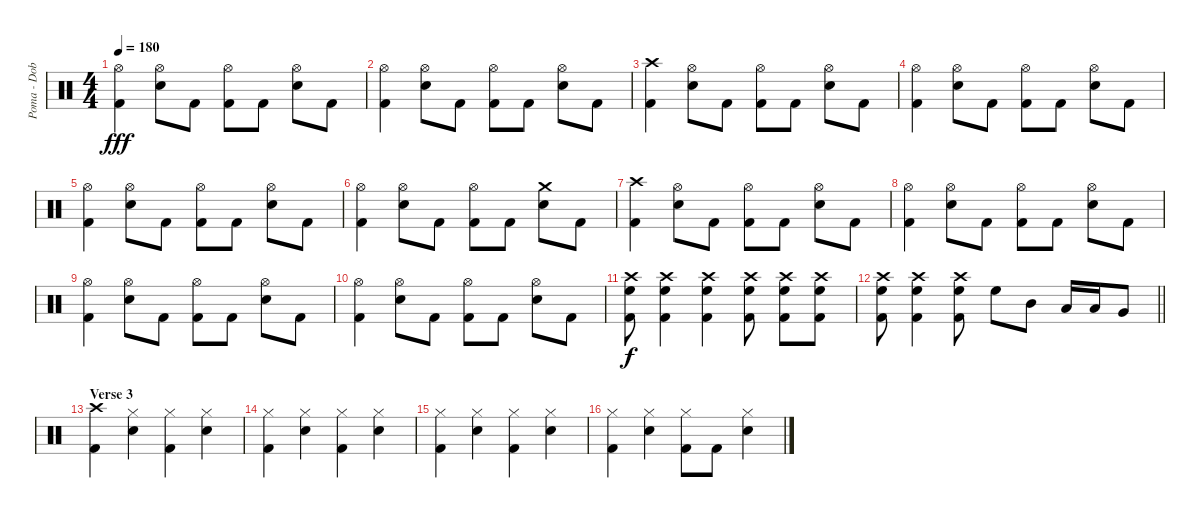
\track ("Poma - Dob" "Poma - Dob") {instrument percussion}
\staff {score}
\articulation defaults
\ts (4 4)
\tempo 180
\clef neutral
\ks c
("Hi-Hat (open)" "Kick (hit) 2").4{dy fff} ("Hi-Hat (open)" "Electric Snare (hit)").8 "Kick (hit) 2".8 ("Hi-Hat (open)" "Kick (hit) 2").8 "Kick (hit) 2".8 ("Hi-Hat (open)" "Electric Snare (hit)").8 "Kick (hit) 2".8 |
("Hi-Hat (open)" "Kick (hit) 2").4 ("Hi-Hat (open)" "Electric Snare (hit)").8 "Kick (hit) 2".8 ("Hi-Hat (open)" "Kick (hit) 2").8 "Kick (hit) 2".8 ("Hi-Hat (open)" "Electric Snare (hit)").8 "Kick (hit) 2".8 |
("Crash high (hit)" "Kick (hit) 2").4 ("Hi-Hat (open)" "Electric Snare (hit)").8 "Kick (hit) 2".8 ("Hi-Hat (open)" "Kick (hit) 2").8 "Kick (hit) 2".8 ("Hi-Hat (open)" "Electric Snare (hit)").8 "Kick (hit) 2".8 |
("Hi-Hat (open)" "Kick (hit) 2").4 ("Hi-Hat (open)" "Electric Snare (hit)").8 "Kick (hit) 2".8 ("Hi-Hat (open)" "Kick (hit) 2").8 "Kick (hit) 2".8 ("Hi-Hat (open)" "Electric Snare (hit)").8 "Kick (hit) 2".8 |
("Hi-Hat (open)" "Kick (hit) 2").4 ("Hi-Hat (open)" "Electric Snare (hit)").8 "Kick (hit) 2".8 ("Hi-Hat (open)" "Kick (hit) 2").8 "Kick (hit) 2".8 ("Hi-Hat (open)" "Electric Snare (hit)").8 "Kick (hit) 2".8 |
("Hi-Hat (open)" "Kick (hit) 2").4 ("Hi-Hat (open)" "Electric Snare (hit)").8 "Kick (hit) 2".8 ("Hi-Hat (open)" "Kick (hit) 2").8 "Kick (hit) 2".8 ("Crash medium (hit)" "Electric Snare (hit)").8 "Kick (hit) 2".8 |
("Crash high (hit)" "Kick (hit) 2").4 ("Hi-Hat (open)" "Electric Snare (hit)").8 "Kick (hit) 2".8 ("Hi-Hat (open)" "Kick (hit) 2").8 "Kick (hit) 2".8 ("Hi-Hat (open)" "Electric Snare (hit)").8 "Kick (hit) 2".8 |
("Hi-Hat (open)" "Kick (hit) 2").4 ("Hi-Hat (open)" "Electric Snare (hit)").8 "Kick (hit) 2".8 ("Hi-Hat (open)" "Kick (hit) 2").8 "Kick (hit) 2".8 ("Hi-Hat (open)" "Electric Snare (hit)").8 "Kick (hit) 2".8 |
("Hi-Hat (open)" "Kick (hit) 2").4 ("Hi-Hat (open)" "Electric Snare (hit)").8 "Kick (hit) 2".8 ("Hi-Hat (open)" "Kick (hit) 2").8 "Kick (hit) 2".8 ("Hi-Hat (open)" "Electric Snare (hit)").8 "Kick (hit) 2".8 |
("Hi-Hat (open)" "Kick (hit) 2").4 ("Hi-Hat (open)" "Electric Snare (hit)").8 "Kick (hit) 2".8 ("Hi-Hat (open)" "Kick (hit) 2").8 "Kick (hit) 2".8 ("Hi-Hat (open)" "Electric Snare (hit)").8 "Kick (hit) 2".8 |
("Crash high (hit)" "High Floor Tom (hit)" "Kick (hit) 2").8{dy f} ("Crash high (hit)" "High Floor Tom (hit)" "Kick (hit) 2").4 ("Crash high (hit)" "High Floor Tom (hit)" "Kick (hit) 2").4 ("Crash high (hit)" "High Floor Tom (hit)" "Kick (hit) 2").8 ("Crash high (hit)" "High Floor Tom (hit)" "Kick (hit) 2").8 ("Crash high (hit)" "High Floor Tom (hit)" "Kick (hit) 2").8 |
\barLineRight lightlight
("Crash high (hit)" "High Floor Tom (hit)" "Kick (hit) 2").8 ("Crash high (hit)" "High Floor Tom (hit)" "Kick (hit) 2").4 ("Crash high (hit)" "High Floor Tom (hit)" "Kick (hit) 2").8 "High Floor Tom (hit)".8 "Mid Tom (hit)".8 "Low Tom (hit)".16 "Low Tom (hit)".16 "Very Low Tom (hit)".8 |
\section ("" "Verse 3")
("Crash high (hit)" "Kick (hit) 2").4 ("Hi-Hat (closed)" "Electric Snare (hit)").4 ("Hi-Hat (closed)" "Kick (hit) 2").4 ("Hi-Hat (closed)" "Electric Snare (hit)").4 |
("Hi-Hat (closed)" "Kick (hit) 2").4 ("Hi-Hat (closed)" "Electric Snare (hit)").4 ("Hi-Hat (closed)" "Kick (hit) 2").4 ("Hi-Hat (closed)" "Electric Snare (hit)").4 |
("Hi-Hat (closed)" "Kick (hit) 2").4 ("Hi-Hat (closed)" "Electric Snare (hit)").4 ("Hi-Hat (closed)" "Kick (hit) 2").4 ("Hi-Hat (closed)" "Electric Snare (hit)").4 |
("Hi-Hat (closed)" "Kick (hit) 2").4 ("Hi-Hat (closed)" "Electric Snare (hit)").4 ("Hi-Hat (closed)" "Kick (hit) 2").8 "Kick (hit) 2".8 ("Hi-Hat (closed)" "Electric Snare (hit)").4
